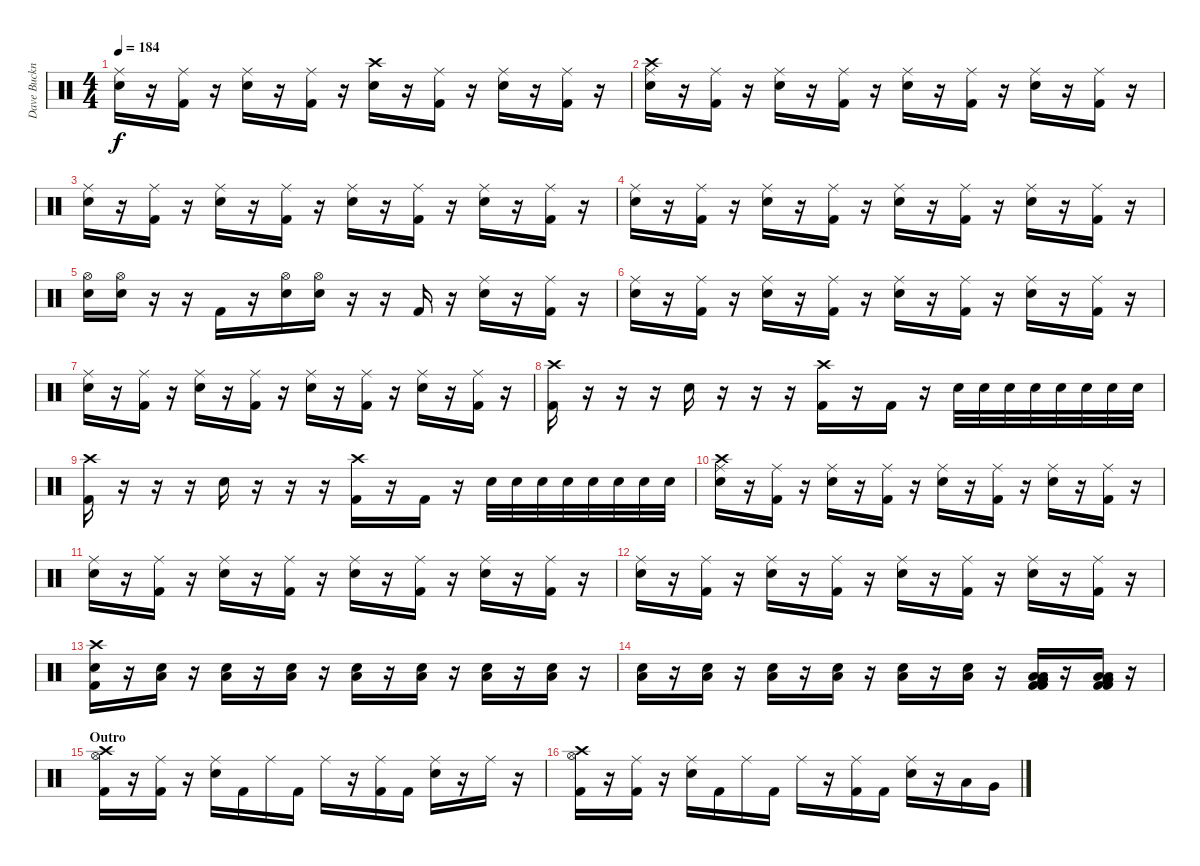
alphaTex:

\track ("Dave Buckner" "Dave Buckn") {instrument percussion}
\staff {score}
\articulation defaults
\ts (4 4)
\tempo 184
\clef neutral
\ks c
("Ride (middle)" "Snare (hit) 2").16{dy f} r.16 ("Ride (middle)" "Kick (hit) 2").16 r.16 ("Ride (middle)" "Snare (hit) 2").16 r.16 ("Ride (middle)" "Kick (hit) 2").16 r.16 ("Crash high (hit)" "Snare (hit) 2").16 r.16 ("Ride (middle)" "Kick (hit) 2").16 r.16 ("Ride (middle)" "Snare (hit) 2").16 r.16 ("Ride (middle)" "Kick (hit) 2").16 r.16 |
("Crash high (hit)" "Ride (middle)" "Snare (hit) 2").16 r.16 ("Ride (middle)" "Kick (hit) 2").16 r.16 ("Ride (middle)" "Snare (hit) 2").16 r.16 ("Ride (middle)" "Kick (hit) 2").16 r.16 ("Ride (middle)" "Snare (hit) 2").16 r.16 ("Ride (middle)" "Kick (hit) 2").16 r.16 ("Ride (middle)" "Snare (hit) 2").16 r.16 ("Ride (middle)" "Kick (hit) 2").16 r.16 |
("Ride (middle)" "Snare (hit) 2").16 r.16 ("Ride (middle)" "Kick (hit) 2").16 r.16 ("Ride (middle)" "Snare (hit) 2").16 r.16 ("Ride (middle)" "Kick (hit) 2").16 r.16 ("Ride (middle)" "Snare (hit) 2").16 r.16 ("Ride (middle)" "Kick (hit) 2").16 r.16 ("Ride (middle)" "Snare (hit) 2").16 r.16 ("Ride (middle)" "Kick (hit) 2").16 r.16 |
("Ride (middle)" "Snare (hit) 2").16 r.16 ("Ride (middle)" "Kick (hit) 2").16 r.16 ("Ride (middle)" "Snare (hit) 2").16 r.16 ("Ride (middle)" "Kick (hit) 2").16 r.16 ("Ride (middle)" "Snare (hit) 2").16 r.16 ("Ride (middle)" "Kick (hit) 2").16 r.16 ("Ride (middle)" "Snare (hit) 2").16 r.16 ("Ride (middle)" "Kick (hit) 2").16 r.16 |
("Hi-Hat (open)" "Snare (hit) 2").16 ("Hi-Hat (open)" "Snare (hit) 2").16 r.16 r.16 "Kick (hit) 2".16 r.16 ("Hi-Hat (open)" "Snare (hit) 2").16 ("Hi-Hat (open)" "Snare (hit) 2").16 r.16 r.16 "Kick (hit) 2".16 r.16 ("Ride (middle)" "Snare (hit) 2").16 r.16 ("Ride (middle)" "Kick (hit) 2").16 r.16 |
("Ride (middle)" "Snare (hit) 2").16 r.16 ("Ride (middle)" "Kick (hit) 2").16 r.16 ("Ride (middle)" "Snare (hit) 2").16 r.16 ("Ride (middle)" "Kick (hit) 2").16 r.16 ("Ride (middle)" "Snare (hit) 2").16 r.16 ("Ride (middle)" "Kick (hit) 2").16 r.16 ("Ride (middle)" "Snare (hit) 2").16 r.16 ("Ride (middle)" "Kick (hit) 2").16 r.16 |
("Ride (middle)" "Snare (hit) 2").16 r.16 ("Ride (middle)" "Kick (hit) 2").16 r.16 ("Ride (middle)" "Snare (hit) 2").16 r.16 ("Ride (middle)" "Kick (hit) 2").16 r.16 ("Ride (middle)" "Snare (hit) 2").16 r.16 ("Ride (middle)" "Kick (hit) 2").16 r.16 ("Ride (middle)" "Snare (hit) 2").16 r.16 ("Ride (middle)" "Kick (hit) 2").16 r.16 |
("Crash high (hit)" "Kick (hit) 2").16 r.16 r.16 r.16 "Snare (hit) 2".16 r.16 r.16 r.16 ("Crash high (hit)" "Kick (hit) 2").16 r.16 "Kick (hit) 2".16 r.16 "Snare (hit) 2".32 "Snare (hit) 2".32 "Snare (hit) 2".32 "Snare (hit) 2".32 "Snare (hit) 2".32 "Snare (hit) 2".32 "Snare (hit) 2".32 "Snare (hit) 2".32 |
("Crash high (hit)" "Kick (hit) 2").16 r.16 r.16 r.16 "Snare (hit) 2".16 r.16 r.16 r.16 ("Crash high (hit)" "Kick (hit) 2").16 r.16 "Kick (hit) 2".16 r.16 "Snare (hit) 2".32 "Snare (hit) 2".32 "Snare (hit) 2".32 "Snare (hit) 2".32 "Snare (hit) 2".32 "Snare (hit) 2".32 "Snare (hit) 2".32 "Snare (hit) 2".32 |
("Crash high (hit)" "Ride (middle)" "Snare (hit) 2").16 r.16 ("Ride (middle)" "Kick (hit) 2").16 r.16 ("Ride (middle)" "Snare (hit) 2").16 r.16 ("Ride (middle)" "Kick (hit) 2").16 r.16 ("Ride (middle)" "Snare (hit) 2").16 r.16 ("Ride (middle)" "Kick (hit) 2").16 r.16 ("Ride (middle)" "Snare (hit) 2").16 r.16 ("Ride (middle)" "Kick (hit) 2").16 r.16 |
("Ride (middle)" "Snare (hit) 2").16 r.16 ("Ride (middle)" "Kick (hit) 2").16 r.16 ("Ride (middle)" "Snare (hit) 2").16 r.16 ("Ride (middle)" "Kick (hit) 2").16 r.16 ("Ride (middle)" "Snare (hit) 2").16 r.16 ("Ride (middle)" "Kick (hit) 2").16 r.16 ("Ride (middle)" "Snare (hit) 2").16 r.16 ("Ride (middle)" "Kick (hit) 2").16 r.16 |
("Ride (middle)" "Snare (hit) 2").16 r.16 ("Ride (middle)" "Kick (hit) 2").16 r.16 ("Ride (middle)" "Snare (hit) 2").16 r.16 ("Ride (middle)" "Kick (hit) 2").16 r.16 ("Ride (middle)" "Snare (hit) 2").16 r.16 ("Ride (middle)" "Kick (hit) 2").16 r.16 ("Ride (middle)" "Snare (hit) 2").16 r.16 ("Ride (middle)" "Kick (hit) 2").16 r.16 |
("Crash high (hit)" "Snare (hit) 2" "Kick (hit) 2").16 r.16 ("Low Floor Tom (hit)" "Snare (hit) 2").16 r.16 ("Low Floor Tom (hit)" "Snare (hit) 2").16 r.16 ("Low Floor Tom (hit)" "Snare (hit) 2").16 r.16 ("Low Floor Tom (hit)" "Snare (hit) 2").16 r.16 ("Low Floor Tom (hit)" "Snare (hit) 2").16 r.16 ("Low Floor Tom (hit)" "Snare (hit) 2").16 r.16 ("Low Floor Tom (hit)" "Snare (hit) 2").16 r.16 |
("Low Floor Tom (hit)" "Snare (hit) 2").16 r.16 ("Low Floor Tom (hit)" "Snare (hit) 2").16 r.16 ("Low Floor Tom (hit)" "Snare (hit) 2").16 r.16 ("Low Floor Tom (hit)" "Snare (hit) 2").16 r.16 ("Low Floor Tom (hit)" "Snare (hit) 2").16 r.16 ("Low Floor Tom (hit)" "Snare (hit) 2").16 r.16 ("Low Tom (hit)" "Low Tom (hit)" "Very Low Tom (hit)" "Very Low Tom (hit)" "Kick (hit) 2" "Kick (hit) 2").16 r.16 ("Low Tom (hit)" "Low Tom (hit)" "Very Low Tom (hit)" "Very Low Tom (hit)" "Kick (hit) 2" "Kick (hit) 2").16 r.16 |
\section ("" "Outro")
("Crash high (hit)" "Hi-Hat (open)" "Kick (hit) 2").16 r.16 ("Ride (middle)" "Kick (hit) 2").16 r.16 ("Ride (middle)" "Snare (hit) 2").16 "Kick (hit) 2".16 "Ride (middle)".16 "Kick (hit) 2".16 "Ride (middle)".16 r.16 ("Ride (middle)" "Kick (hit) 2").16 "Kick (hit) 2".16 ("Ride (middle)" "Snare (hit) 2").16 r.16 "Ride (middle)".16 r.16 |
("Crash high (hit)" "Hi-Hat (open)" "Kick (hit) 2").16 r.16 ("Ride (middle)" "Kick (hit) 2").16 r.16 ("Ride (middle)" "Snare (hit) 2").16 "Kick (hit) 2".16 "Ride (middle)".16 "Kick (hit) 2".16 "Ride (middle)".16 r.16 ("Ride (middle)" "Kick (hit) 2").16 "Kick (hit) 2".16 ("Ride (middle)" "Snare (hit) 2").16 r.16 "Low Tom (hit)".16 "Very Low Tom (hit)".16
